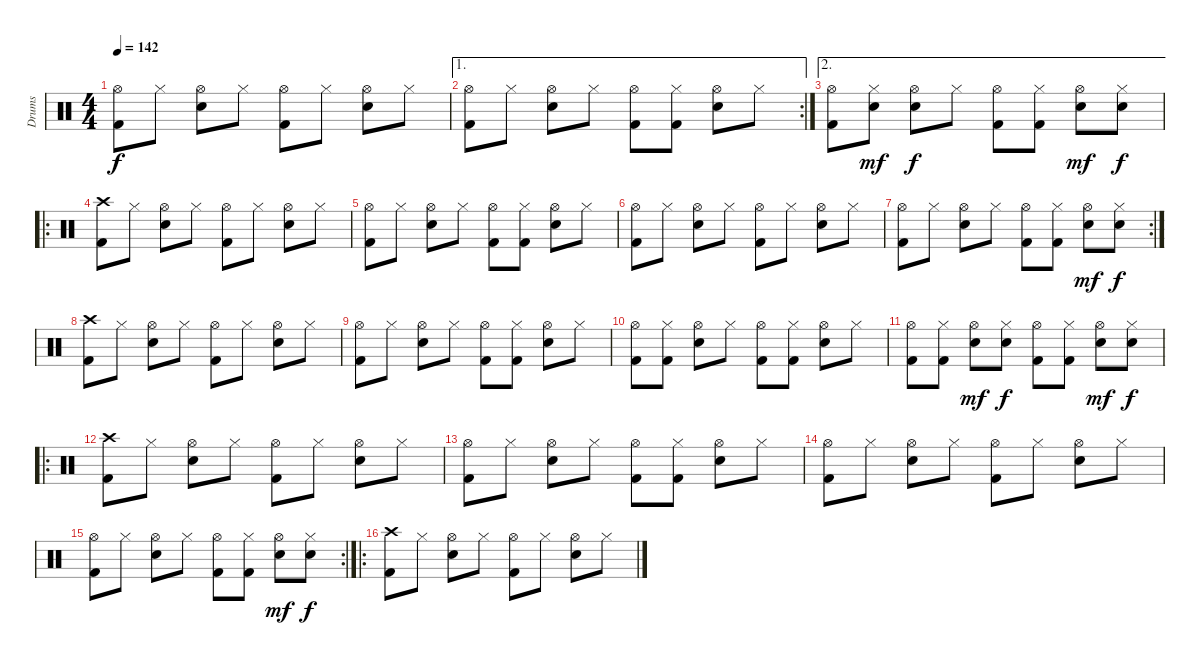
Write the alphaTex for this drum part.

\track ("Drums" "Drums") {instrument percussion}
\staff {score}
\articulation defaults
\ts (4 4)
\tempo 142
\clef neutral
\ks c
("Hi-Hat (open)" "Kick (hit) 2").8{dy f} "Hi-Hat (closed)".8 ("Hi-Hat (open)" "Electric Snare (hit)").8 "Hi-Hat (closed)".8 ("Hi-Hat (open)" "Kick (hit) 2").8 "Hi-Hat (closed)".8 ("Hi-Hat (open)" "Electric Snare (hit)").8 "Hi-Hat (closed)".8 |
\ae 1
\rc 2
("Hi-Hat (open)" "Kick (hit) 2").8 "Hi-Hat (closed)".8 ("Hi-Hat (open)" "Electric Snare (hit)").8 "Hi-Hat (closed)".8 ("Hi-Hat (open)" "Kick (hit) 2").8 ("Hi-Hat (closed)" "Kick (hit) 2").8 ("Hi-Hat (open)" "Electric Snare (hit)").8 "Hi-Hat (closed)".8 |
\ae 2
("Hi-Hat (open)" "Kick (hit) 2").8 ("Hi-Hat (closed)" "Electric Snare (hit)").8{dy mf} ("Hi-Hat (open)" "Electric Snare (hit)").8{dy f} "Hi-Hat (closed)".8 ("Hi-Hat (open)" "Kick (hit) 2").8 ("Hi-Hat (closed)" "Kick (hit) 2").8 ("Hi-Hat (open)" "Electric Snare (hit)").8{dy mf} ("Hi-Hat (closed)" "Electric Snare (hit)").8{dy f} |
\ro
("Crash high (hit)" "Kick (hit) 2").8 "Hi-Hat (closed)".8 ("Hi-Hat (open)" "Electric Snare (hit)").8 "Hi-Hat (closed)".8 ("Hi-Hat (open)" "Kick (hit) 2").8 "Hi-Hat (closed)".8 ("Hi-Hat (open)" "Electric Snare (hit)").8 "Hi-Hat (closed)".8 |
("Hi-Hat (open)" "Kick (hit) 2").8 "Hi-Hat (closed)".8 ("Hi-Hat (open)" "Electric Snare (hit)").8 "Hi-Hat (closed)".8 ("Hi-Hat (open)" "Kick (hit) 2").8 ("Hi-Hat (closed)" "Kick (hit) 2").8 ("Hi-Hat (open)" "Electric Snare (hit)").8 "Hi-Hat (closed)".8 |
("Hi-Hat (open)" "Kick (hit) 2").8 "Hi-Hat (closed)".8 ("Hi-Hat (open)" "Electric Snare (hit)").8 "Hi-Hat (closed)".8 ("Hi-Hat (open)" "Kick (hit) 2").8 "Hi-Hat (closed)".8 ("Hi-Hat (open)" "Electric Snare (hit)").8 "Hi-Hat (closed)".8 |
\rc 2
("Hi-Hat (open)" "Kick (hit) 2").8 "Hi-Hat (closed)".8 ("Hi-Hat (open)" "Electric Snare (hit)").8 "Hi-Hat (closed)".8 ("Hi-Hat (open)" "Kick (hit) 2").8 ("Hi-Hat (closed)" "Kick (hit) 2").8 ("Hi-Hat (open)" "Electric Snare (hit)").8{dy mf} ("Hi-Hat (closed)" "Electric Snare (hit)").8{dy f} |
("Crash high (hit)" "Kick (hit) 2").8 "Hi-Hat (closed)".8 ("Hi-Hat (open)" "Electric Snare (hit)").8 "Hi-Hat (closed)".8 ("Hi-Hat (open)" "Kick (hit) 2").8 "Hi-Hat (closed)".8 ("Hi-Hat (open)" "Electric Snare (hit)").8 "Hi-Hat (closed)".8 |
("Hi-Hat (open)" "Kick (hit) 2").8 "Hi-Hat (closed)".8 ("Hi-Hat (open)" "Electric Snare (hit)").8 "Hi-Hat (closed)".8 ("Hi-Hat (open)" "Kick (hit) 2").8 ("Hi-Hat (closed)" "Kick (hit) 2").8 ("Hi-Hat (open)" "Electric Snare (hit)").8 "Hi-Hat (closed)".8 |
("Hi-Hat (open)" "Kick (hit) 2").8 ("Hi-Hat (closed)" "Kick (hit) 2").8 ("Hi-Hat (open)" "Electric Snare (hit)").8 "Hi-Hat (closed)".8 ("Hi-Hat (open)" "Kick (hit) 2").8 ("Hi-Hat (closed)" "Kick (hit) 2").8 ("Hi-Hat (open)" "Electric Snare (hit)").8 "Hi-Hat (closed)".8 |
("Hi-Hat (open)" "Kick (hit) 2").8 ("Hi-Hat (closed)" "Kick (hit) 2").8 ("Hi-Hat (open)" "Electric Snare (hit)").8{dy mf} ("Hi-Hat (closed)" "Electric Snare (hit)").8{dy f} ("Hi-Hat (open)" "Kick (hit) 2").8 ("Hi-Hat (closed)" "Kick (hit) 2").8 ("Hi-Hat (open)" "Electric Snare (hit)").8{dy mf} ("Hi-Hat (closed)" "Electric Snare (hit)").8{dy f} |
\ro
("Crash high (hit)" "Kick (hit) 2").8 "Hi-Hat (closed)".8 ("Hi-Hat (open)" "Electric Snare (hit)").8 "Hi-Hat (closed)".8 ("Hi-Hat (open)" "Kick (hit) 2").8 "Hi-Hat (closed)".8 ("Hi-Hat (open)" "Electric Snare (hit)").8 "Hi-Hat (closed)".8 |
("Hi-Hat (open)" "Kick (hit) 2").8 "Hi-Hat (closed)".8 ("Hi-Hat (open)" "Electric Snare (hit)").8 "Hi-Hat (closed)".8 ("Hi-Hat (open)" "Kick (hit) 2").8 ("Hi-Hat (closed)" "Kick (hit) 2").8 ("Hi-Hat (open)" "Electric Snare (hit)").8 "Hi-Hat (closed)".8 |
("Hi-Hat (open)" "Kick (hit) 2").8 "Hi-Hat (closed)".8 ("Hi-Hat (open)" "Electric Snare (hit)").8 "Hi-Hat (closed)".8 ("Hi-Hat (open)" "Kick (hit) 2").8 "Hi-Hat (closed)".8 ("Hi-Hat (open)" "Electric Snare (hit)").8 "Hi-Hat (closed)".8 |
\rc 2
("Hi-Hat (open)" "Kick (hit) 2").8 "Hi-Hat (closed)".8 ("Hi-Hat (open)" "Electric Snare (hit)").8 "Hi-Hat (closed)".8 ("Hi-Hat (open)" "Kick (hit) 2").8 ("Hi-Hat (closed)" "Kick (hit) 2").8 ("Hi-Hat (open)" "Electric Snare (hit)").8{dy mf} ("Hi-Hat (closed)" "Electric Snare (hit)").8{dy f} |
\ro
("Crash high (hit)" "Kick (hit) 2").8 "Hi-Hat (closed)".8 ("Hi-Hat (open)" "Electric Snare (hit)").8 "Hi-Hat (closed)".8 ("Hi-Hat (open)" "Kick (hit) 2").8 "Hi-Hat (closed)".8 ("Hi-Hat (open)" "Electric Snare (hit)").8 "Hi-Hat (closed)".8
